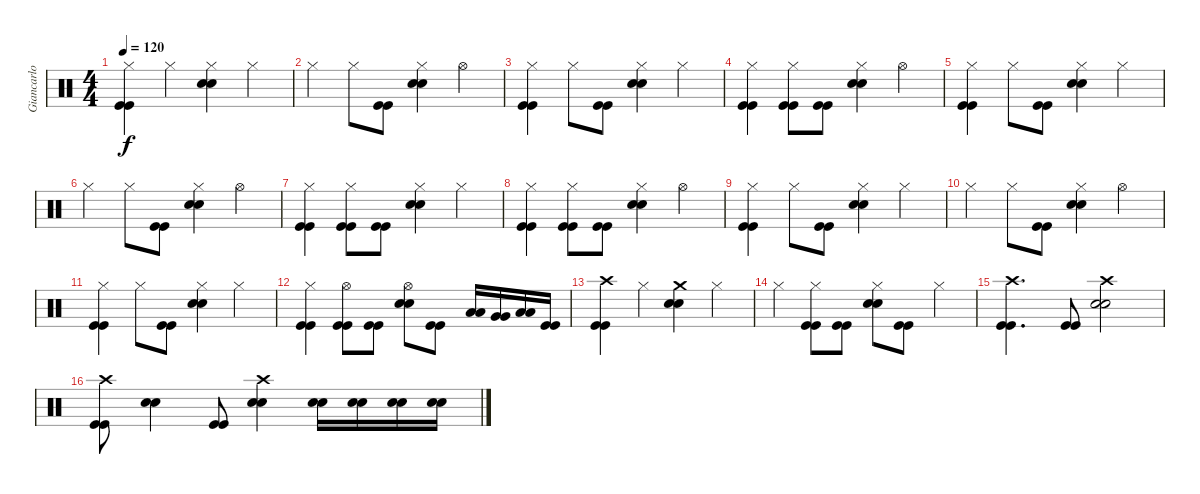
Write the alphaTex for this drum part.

\track ("Giancarlo Autenzio - Drums" "Giancarlo ") {instrument percussion}
\staff {score}
\articulation defaults
\ts (4 4)
\tempo 120
\clef neutral
\ks c
("Kick (hit)" "Kick (hit)" "Hi-Hat (closed)").4{dy f} "Hi-Hat (closed)".4 ("Electric Snare (hit)" "Electric Snare (hit)" "Hi-Hat (closed)").4 "Hi-Hat (closed)".4 |
"Hi-Hat (closed)".4 "Hi-Hat (closed)".8 ("Kick (hit)" "Kick (hit)").8 ("Electric Snare (hit)" "Electric Snare (hit)" "Hi-Hat (closed)").4 "Hi-Hat (open)".4 |
("Kick (hit)" "Kick (hit)" "Hi-Hat (closed)").4 "Hi-Hat (closed)".8 ("Kick (hit)" "Kick (hit)").8 ("Electric Snare (hit)" "Electric Snare (hit)" "Hi-Hat (closed)").4 "Hi-Hat (closed)".4 |
("Kick (hit)" "Kick (hit)" "Hi-Hat (closed)").4 ("Kick (hit)" "Kick (hit)" "Hi-Hat (closed)").8 ("Kick (hit)" "Kick (hit)").8 ("Electric Snare (hit)" "Electric Snare (hit)" "Hi-Hat (closed)").4 "Hi-Hat (open)".4 |
("Kick (hit)" "Kick (hit)" "Hi-Hat (closed)").4 "Hi-Hat (closed)".8 ("Kick (hit)" "Kick (hit)").8 ("Electric Snare (hit)" "Electric Snare (hit)" "Hi-Hat (closed)").4 "Hi-Hat (closed)".4 |
"Hi-Hat (closed)".4 "Hi-Hat (closed)".8 ("Kick (hit)" "Kick (hit)").8 ("Electric Snare (hit)" "Electric Snare (hit)" "Hi-Hat (closed)").4 "Hi-Hat (open)".4 |
("Kick (hit)" "Kick (hit)" "Hi-Hat (closed)").4 ("Kick (hit)" "Kick (hit)" "Hi-Hat (closed)").8 ("Kick (hit)" "Kick (hit)").8 ("Electric Snare (hit)" "Electric Snare (hit)" "Hi-Hat (closed)").4 "Hi-Hat (closed)".4 |
("Kick (hit)" "Kick (hit)" "Hi-Hat (closed)").4 ("Kick (hit)" "Kick (hit)" "Hi-Hat (closed)").8 ("Kick (hit)" "Kick (hit)").8 ("Electric Snare (hit)" "Electric Snare (hit)" "Hi-Hat (closed)").4 "Hi-Hat (open)".4 |
("Kick (hit)" "Kick (hit)" "Hi-Hat (closed)").4 "Hi-Hat (closed)".8 ("Kick (hit)" "Kick (hit)").8 ("Electric Snare (hit)" "Electric Snare (hit)" "Hi-Hat (closed)").4 "Hi-Hat (closed)".4 |
"Hi-Hat (closed)".4 "Hi-Hat (closed)".8 ("Kick (hit)" "Kick (hit)").8 ("Electric Snare (hit)" "Electric Snare (hit)" "Hi-Hat (closed)").4 "Hi-Hat (open)".4 |
("Kick (hit)" "Kick (hit)" "Hi-Hat (closed)").4 "Hi-Hat (closed)".8 ("Kick (hit)" "Kick (hit)").8 ("Electric Snare (hit)" "Electric Snare (hit)" "Hi-Hat (closed)").4 "Hi-Hat (closed)".4 |
("Kick (hit)" "Kick (hit)" "Hi-Hat (closed)").4 ("Kick (hit)" "Kick (hit)" "Hi-Hat (open)").8 ("Kick (hit)" "Kick (hit)").8 ("Electric Snare (hit)" "Electric Snare (hit)" "Hi-Hat (open)").8 ("Kick (hit)" "Kick (hit)").8 ("Low Tom (hit)" "Low Tom (hit)").16 ("Very Low Tom (hit)" "Very Low Tom (hit)").16 ("Low Floor Tom (hit)" "Low Floor Tom (hit)").16 ("Kick (hit)" "Kick (hit)").16 |
("Kick (hit)" "Kick (hit)" "Crash high (hit)").4 "Hi-Hat (closed)".4 ("Electric Snare (hit)" "Electric Snare (hit)" "Crash medium (hit)").4 "Hi-Hat (closed)".4 |
"Hi-Hat (closed)".4 ("Kick (hit)" "Kick (hit)" "Hi-Hat (closed)").8 ("Kick (hit)" "Kick (hit)").8 ("Electric Snare (hit)" "Electric Snare (hit)" "Hi-Hat (closed)").8 ("Kick (hit)" "Kick (hit)").8 "Hi-Hat (closed)".4 |
("Kick (hit)" "Kick (hit)" "Crash high (hit)").4{d} ("Kick (hit)" "Kick (hit)").8 ("Electric Snare (hit)" "Electric Snare (hit)" "Crash high (hit)").2 |
("Kick (hit)" "Kick (hit)" "Crash high (hit)").8 ("Electric Snare (hit)" "Electric Snare (hit)").4 ("Kick (hit)" "Kick (hit)").8 ("Electric Snare (hit)" "Electric Snare (hit)" "Crash high (hit)").4 ("Electric Snare (hit)" "Electric Snare (hit)").16 ("Electric Snare (hit)" "Electric Snare (hit)").16 ("Electric Snare (hit)" "Electric Snare (hit)").16 ("Electric Snare (hit)" "Electric Snare (hit)").16
